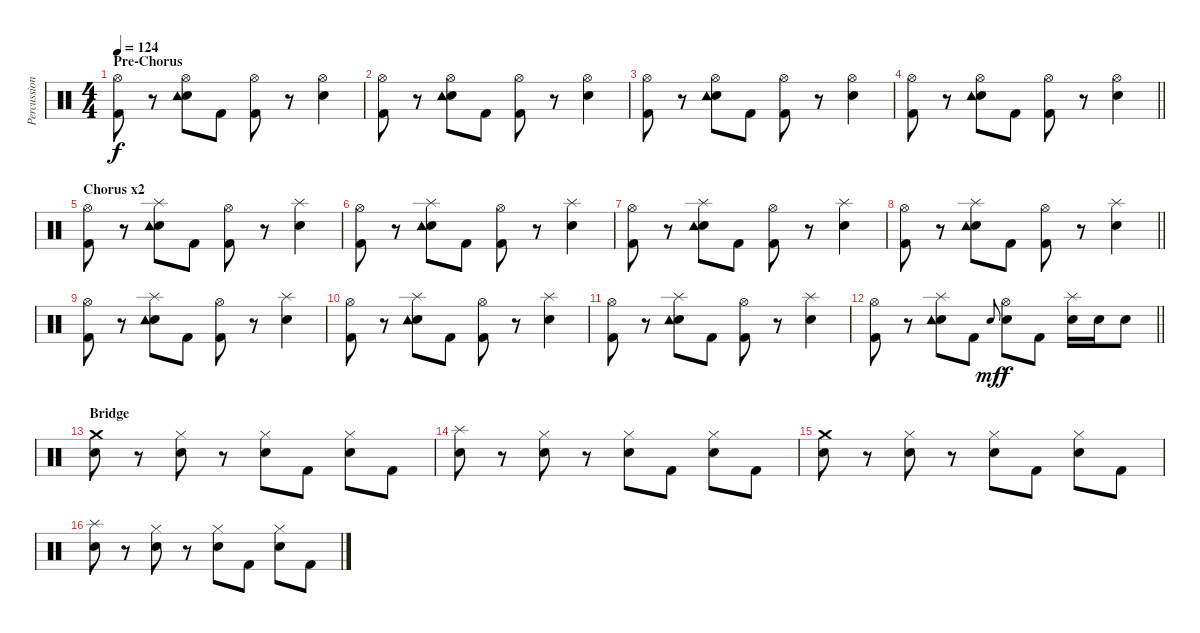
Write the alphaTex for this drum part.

\track ("Percussion" "Percussion") {instrument percussion}
\staff {score}
\articulation defaults
\ts (4 4)
\section ("" "Pre-Chorus")
\tempo 124
\clef neutral
\ks c
("Hi-Hat (open)" "Kick (hit) 2").8{dy f} r.8 ("Hi-Hat (open)" "Electric Snare (hit)" "Tambourine (hit)").8 "Kick (hit) 2".8 ("Hi-Hat (open)" "Kick (hit) 2").8 r.8 ("Hi-Hat (open)" "Electric Snare (hit)").4 |
("Hi-Hat (open)" "Kick (hit) 2").8 r.8 ("Hi-Hat (open)" "Electric Snare (hit)" "Tambourine (hit)").8 "Kick (hit) 2".8 ("Hi-Hat (open)" "Kick (hit) 2").8 r.8 ("Hi-Hat (open)" "Electric Snare (hit)").4 |
("Hi-Hat (open)" "Kick (hit) 2").8 r.8 ("Hi-Hat (open)" "Electric Snare (hit)" "Tambourine (hit)").8 "Kick (hit) 2".8 ("Hi-Hat (open)" "Kick (hit) 2").8 r.8 ("Hi-Hat (open)" "Electric Snare (hit)").4 |
\barLineRight lightlight
("Hi-Hat (open)" "Kick (hit) 2").8 r.8 ("Hi-Hat (open)" "Electric Snare (hit)" "Tambourine (hit)").8 "Kick (hit) 2".8 ("Hi-Hat (open)" "Kick (hit) 2").8 r.8 ("Hi-Hat (open)" "Electric Snare (hit)").4 |
\section ("" "Chorus x2")
("Hi-Hat (open)" "Kick (hit) 2").8 r.8 ("Splash (hit)" "Electric Snare (hit)" "Tambourine (hit)").8 "Kick (hit) 2".8 ("Hi-Hat (open)" "Kick (hit) 2").8 r.8 ("Splash (hit)" "Electric Snare (hit)").4 |
("Hi-Hat (open)" "Kick (hit) 2").8 r.8 ("Splash (hit)" "Electric Snare (hit)" "Tambourine (hit)").8 "Kick (hit) 2".8 ("Hi-Hat (open)" "Kick (hit) 2").8 r.8 ("Splash (hit)" "Electric Snare (hit)").4 |
("Hi-Hat (open)" "Kick (hit) 2").8 r.8 ("Splash (hit)" "Electric Snare (hit)" "Tambourine (hit)").8 "Kick (hit) 2".8 ("Hi-Hat (open)" "Kick (hit) 2").8 r.8 ("Splash (hit)" "Electric Snare (hit)").4 |
\barLineRight lightlight
("Hi-Hat (open)" "Kick (hit) 2").8 r.8 ("Splash (hit)" "Electric Snare (hit)" "Tambourine (hit)").8 "Kick (hit) 2".8 ("Hi-Hat (open)" "Kick (hit) 2").8 r.8 ("Splash (hit)" "Electric Snare (hit)").4 |
("Hi-Hat (open)" "Kick (hit) 2").8 r.8 ("Splash (hit)" "Electric Snare (hit)" "Tambourine (hit)").8 "Kick (hit) 2".8 ("Hi-Hat (open)" "Kick (hit) 2").8 r.8 ("Splash (hit)" "Electric Snare (hit)").4 |
("Hi-Hat (open)" "Kick (hit) 2").8 r.8 ("Splash (hit)" "Electric Snare (hit)" "Tambourine (hit)").8 "Kick (hit) 2".8 ("Hi-Hat (open)" "Kick (hit) 2").8 r.8 ("Splash (hit)" "Electric Snare (hit)").4 |
("Hi-Hat (open)" "Kick (hit) 2").8 r.8 ("Splash (hit)" "Electric Snare (hit)" "Tambourine (hit)").8 "Kick (hit) 2".8 ("Hi-Hat (open)" "Kick (hit) 2").8 r.8 ("Splash (hit)" "Electric Snare (hit)").4 |
\barLineRight lightlight
("Hi-Hat (open)" "Kick (hit) 2").8 r.8 ("Splash (hit)" "Electric Snare (hit)" "Tambourine (hit)").8 "Kick (hit) 2".8 "Electric Snare (hit)".8{gr onbeat dy mf} ("Hi-Hat (open)" "Electric Snare (hit)").8{dy f} "Kick (hit) 2".8 ("Splash (hit)" "Electric Snare (hit)").16 "Electric Snare (hit)".16 "Electric Snare (hit)".8 |
\section ("" "Bridge")
("Crash medium (hit)" "Electric Snare (hit)").8 r.8 ("Electric Snare (hit)" "Hi-Hat (closed)").8 r.8 ("Electric Snare (hit)" "Hi-Hat (closed)").8 "Kick (hit) 2".8 ("Electric Snare (hit)" "Hi-Hat (closed)").8 "Kick (hit) 2".8 |
("Splash (hit)" "Electric Snare (hit)").8 r.8 ("Electric Snare (hit)" "Hi-Hat (closed)").8 r.8 ("Electric Snare (hit)" "Hi-Hat (closed)").8 "Kick (hit) 2".8 ("Electric Snare (hit)" "Hi-Hat (closed)").8 "Kick (hit) 2".8 |
("Crash medium (hit)" "Electric Snare (hit)").8 r.8 ("Electric Snare (hit)" "Hi-Hat (closed)").8 r.8 ("Electric Snare (hit)" "Hi-Hat (closed)").8 "Kick (hit) 2".8 ("Electric Snare (hit)" "Hi-Hat (closed)").8 "Kick (hit) 2".8 |
("Splash (hit)" "Electric Snare (hit)").8 r.8 ("Electric Snare (hit)" "Hi-Hat (closed)").8 r.8 ("Electric Snare (hit)" "Hi-Hat (closed)").8 "Kick (hit) 2".8 ("Electric Snare (hit)" "Hi-Hat (closed)").8 "Kick (hit) 2".8
